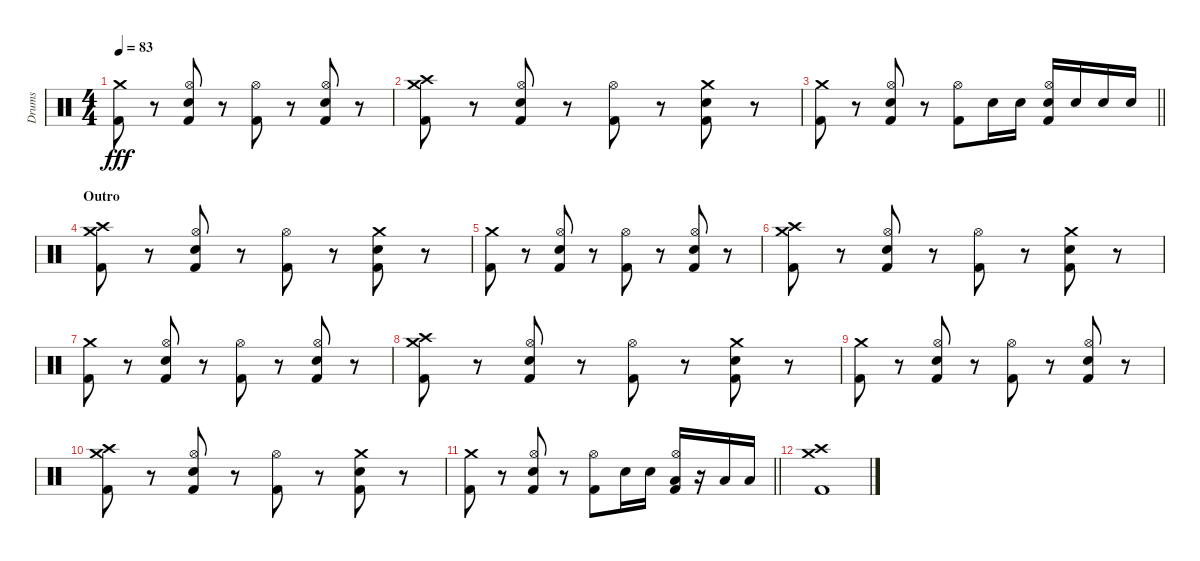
\track ("Drums" "Drums") {instrument percussion}
\staff {score}
\articulation defaults
\ts (4 4)
\tempo 83
\clef neutral
\ks c
("Crash medium (hit)" "Kick (hit) 2").8{dy fff} r.8 ("Hi-Hat (open)" "Snare (hit) 2" "Kick (hit) 2").8 r.8 ("Hi-Hat (open)" "Kick (hit) 2").8 r.8 ("Hi-Hat (open)" "Snare (hit) 2" "Kick (hit) 2").8 r.8 |
("Crash medium (hit)" "Crash high (hit)" "Kick (hit) 2").8 r.8 ("Hi-Hat (open)" "Snare (hit) 2" "Kick (hit) 2").8 r.8 ("Hi-Hat (open)" "Kick (hit) 2").8 r.8 ("Crash medium (hit)" "Snare (hit) 2" "Kick (hit) 2").8 r.8 |
\barLineRight lightlight
("Crash medium (hit)" "Kick (hit) 2").8 r.8 ("Hi-Hat (open)" "Snare (hit) 2" "Kick (hit) 2").8 r.8 ("Hi-Hat (open)" "Kick (hit) 2").8 "Snare (hit) 2".16 "Snare (hit) 2".16 ("Hi-Hat (open)" "Snare (hit) 2" "Kick (hit) 2").16 "Snare (hit) 2".16 "Snare (hit) 2".16 "Snare (hit) 2".16 |
\section ("" "Outro")
("Crash medium (hit)" "Crash high (hit)" "Kick (hit) 2").8 r.8 ("Hi-Hat (open)" "Snare (hit) 2" "Kick (hit) 2").8 r.8 ("Hi-Hat (open)" "Kick (hit) 2").8 r.8 ("Crash medium (hit)" "Snare (hit) 2" "Kick (hit) 2").8 r.8 |
("Crash medium (hit)" "Kick (hit) 2").8 r.8 ("Hi-Hat (open)" "Snare (hit) 2" "Kick (hit) 2").8 r.8 ("Hi-Hat (open)" "Kick (hit) 2").8 r.8 ("Hi-Hat (open)" "Snare (hit) 2" "Kick (hit) 2").8 r.8 |
("Crash medium (hit)" "Crash high (hit)" "Kick (hit) 2").8 r.8 ("Hi-Hat (open)" "Snare (hit) 2" "Kick (hit) 2").8 r.8 ("Hi-Hat (open)" "Kick (hit) 2").8 r.8 ("Crash medium (hit)" "Snare (hit) 2" "Kick (hit) 2").8 r.8 |
("Crash medium (hit)" "Kick (hit) 2").8 r.8 ("Hi-Hat (open)" "Snare (hit) 2" "Kick (hit) 2").8 r.8 ("Hi-Hat (open)" "Kick (hit) 2").8 r.8 ("Hi-Hat (open)" "Snare (hit) 2" "Kick (hit) 2").8 r.8 |
("Crash medium (hit)" "Crash high (hit)" "Kick (hit) 2").8 r.8 ("Hi-Hat (open)" "Snare (hit) 2" "Kick (hit) 2").8 r.8 ("Hi-Hat (open)" "Kick (hit) 2").8 r.8 ("Crash medium (hit)" "Snare (hit) 2" "Kick (hit) 2").8 r.8 |
("Crash medium (hit)" "Kick (hit) 2").8 r.8 ("Hi-Hat (open)" "Snare (hit) 2" "Kick (hit) 2").8 r.8 ("Hi-Hat (open)" "Kick (hit) 2").8 r.8 ("Hi-Hat (open)" "Snare (hit) 2" "Kick (hit) 2").8 r.8 |
("Crash medium (hit)" "Crash high (hit)" "Kick (hit) 2").8 r.8 ("Hi-Hat (open)" "Snare (hit) 2" "Kick (hit) 2").8 r.8 ("Hi-Hat (open)" "Kick (hit) 2").8 r.8 ("Crash medium (hit)" "Snare (hit) 2" "Kick (hit) 2").8 r.8 |
\barLineRight lightlight
("Crash medium (hit)" "Kick (hit) 2").8 r.8 ("Hi-Hat (open)" "Snare (hit) 2" "Kick (hit) 2").8 r.8 ("Hi-Hat (open)" "Kick (hit) 2").8 "Snare (hit) 2".16 "Snare (hit) 2".16 ("Hi-Hat (open)" "Low Tom (hit)" "Kick (hit) 2").16 r.16 "Low Tom (hit)".16 "Low Floor Tom (hit)".16 |
("Crash medium (hit)" "Crash high (hit)" "Kick (hit) 2").1
